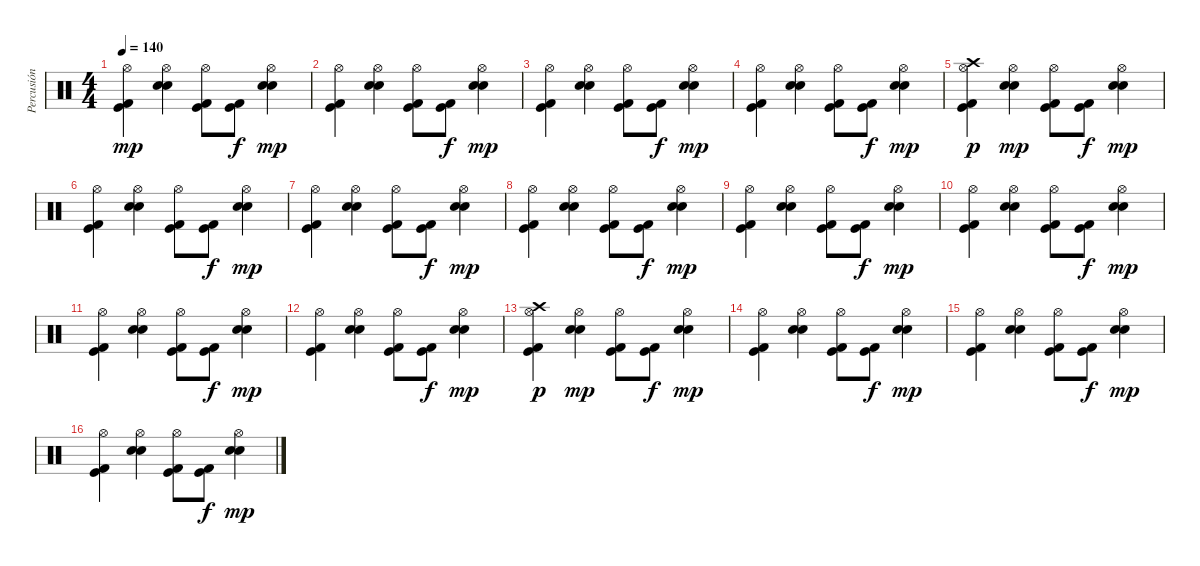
\track ("Percusión" "Percusión") {instrument percussion}
\staff {score}
\articulation defaults
\ts (4 4)
\tempo 140
\clef neutral
\ks c
("Kick (hit)" "Kick (hit) 2" "Hi-Hat (open)").4{dy mp} ("Electric Snare (hit)" "Snare (hit) 2" "Hi-Hat (open)").4 ("Kick (hit)" "Kick (hit) 2" "Hi-Hat (open)").8 ("Kick (hit)" "Kick (hit) 2").8{dy f} ("Snare (hit) 2" "Electric Snare (hit)" "Hi-Hat (open)").4{dy mp} |
("Kick (hit)" "Kick (hit) 2" "Hi-Hat (open)").4 ("Electric Snare (hit)" "Snare (hit) 2" "Hi-Hat (open)").4 ("Kick (hit)" "Kick (hit) 2" "Hi-Hat (open)").8 ("Kick (hit)" "Kick (hit) 2").8{dy f} ("Snare (hit) 2" "Electric Snare (hit)" "Hi-Hat (open)").4{dy mp} |
("Kick (hit)" "Kick (hit) 2" "Hi-Hat (open)").4 ("Electric Snare (hit)" "Snare (hit) 2" "Hi-Hat (open)").4 ("Kick (hit)" "Kick (hit) 2" "Hi-Hat (open)").8 ("Kick (hit)" "Kick (hit) 2").8{dy f} ("Snare (hit) 2" "Electric Snare (hit)" "Hi-Hat (open)").4{dy mp} |
("Kick (hit)" "Kick (hit) 2" "Hi-Hat (open)").4 ("Electric Snare (hit)" "Snare (hit) 2" "Hi-Hat (open)").4 ("Kick (hit)" "Kick (hit) 2" "Hi-Hat (open)").8 ("Kick (hit)" "Kick (hit) 2").8{dy f} ("Snare (hit) 2" "Electric Snare (hit)" "Hi-Hat (open)").4{dy mp} |
("Kick (hit)" "Kick (hit) 2" "Hi-Hat (open)" "Crash high (hit)").4{dy p} ("Electric Snare (hit)" "Snare (hit) 2" "Hi-Hat (open)").4{dy mp} ("Kick (hit)" "Kick (hit) 2" "Hi-Hat (open)").8 ("Kick (hit)" "Kick (hit) 2").8{dy f} ("Snare (hit) 2" "Electric Snare (hit)" "Hi-Hat (open)").4{dy mp} |
("Kick (hit)" "Kick (hit) 2" "Hi-Hat (open)").4 ("Electric Snare (hit)" "Snare (hit) 2" "Hi-Hat (open)").4 ("Kick (hit)" "Kick (hit) 2" "Hi-Hat (open)").8 ("Kick (hit)" "Kick (hit) 2").8{dy f} ("Snare (hit) 2" "Electric Snare (hit)" "Hi-Hat (open)").4{dy mp} |
("Kick (hit)" "Kick (hit) 2" "Hi-Hat (open)").4 ("Electric Snare (hit)" "Snare (hit) 2" "Hi-Hat (open)").4 ("Kick (hit)" "Kick (hit) 2" "Hi-Hat (open)").8 ("Kick (hit)" "Kick (hit) 2").8{dy f} ("Snare (hit) 2" "Electric Snare (hit)" "Hi-Hat (open)").4{dy mp} |
("Kick (hit)" "Kick (hit) 2" "Hi-Hat (open)").4 ("Electric Snare (hit)" "Snare (hit) 2" "Hi-Hat (open)").4 ("Kick (hit)" "Kick (hit) 2" "Hi-Hat (open)").8 ("Kick (hit)" "Kick (hit) 2").8{dy f} ("Snare (hit) 2" "Electric Snare (hit)" "Hi-Hat (open)").4{dy mp} |
("Kick (hit)" "Kick (hit) 2" "Hi-Hat (open)").4 ("Electric Snare (hit)" "Snare (hit) 2" "Hi-Hat (open)").4 ("Kick (hit)" "Kick (hit) 2" "Hi-Hat (open)").8 ("Kick (hit)" "Kick (hit) 2").8{dy f} ("Snare (hit) 2" "Electric Snare (hit)" "Hi-Hat (open)").4{dy mp} |
("Kick (hit)" "Kick (hit) 2" "Hi-Hat (open)").4 ("Electric Snare (hit)" "Snare (hit) 2" "Hi-Hat (open)").4 ("Kick (hit)" "Kick (hit) 2" "Hi-Hat (open)").8 ("Kick (hit)" "Kick (hit) 2").8{dy f} ("Snare (hit) 2" "Electric Snare (hit)" "Hi-Hat (open)").4{dy mp} |
("Kick (hit)" "Kick (hit) 2" "Hi-Hat (open)").4 ("Electric Snare (hit)" "Snare (hit) 2" "Hi-Hat (open)").4 ("Kick (hit)" "Kick (hit) 2" "Hi-Hat (open)").8 ("Kick (hit)" "Kick (hit) 2").8{dy f} ("Snare (hit) 2" "Electric Snare (hit)" "Hi-Hat (open)").4{dy mp} |
("Kick (hit)" "Kick (hit) 2" "Hi-Hat (open)").4 ("Electric Snare (hit)" "Snare (hit) 2" "Hi-Hat (open)").4 ("Kick (hit)" "Kick (hit) 2" "Hi-Hat (open)").8 ("Kick (hit)" "Kick (hit) 2").8{dy f} ("Snare (hit) 2" "Electric Snare (hit)" "Hi-Hat (open)").4{dy mp} |
("Kick (hit)" "Kick (hit) 2" "Hi-Hat (open)" "Crash high (hit)").4{dy p} ("Electric Snare (hit)" "Snare (hit) 2" "Hi-Hat (open)").4{dy mp} ("Kick (hit)" "Kick (hit) 2" "Hi-Hat (open)").8 ("Kick (hit)" "Kick (hit) 2").8{dy f} ("Snare (hit) 2" "Electric Snare (hit)" "Hi-Hat (open)").4{dy mp} |
("Kick (hit)" "Kick (hit) 2" "Hi-Hat (open)").4 ("Electric Snare (hit)" "Snare (hit) 2" "Hi-Hat (open)").4 ("Kick (hit)" "Kick (hit) 2" "Hi-Hat (open)").8 ("Kick (hit)" "Kick (hit) 2").8{dy f} ("Snare (hit) 2" "Electric Snare (hit)" "Hi-Hat (open)").4{dy mp} |
("Kick (hit)" "Kick (hit) 2" "Hi-Hat (open)").4 ("Electric Snare (hit)" "Snare (hit) 2" "Hi-Hat (open)").4 ("Kick (hit)" "Kick (hit) 2" "Hi-Hat (open)").8 ("Kick (hit)" "Kick (hit) 2").8{dy f} ("Snare (hit) 2" "Electric Snare (hit)" "Hi-Hat (open)").4{dy mp} |
("Kick (hit)" "Kick (hit) 2" "Hi-Hat (open)").4 ("Electric Snare (hit)" "Snare (hit) 2" "Hi-Hat (open)").4 ("Kick (hit)" "Kick (hit) 2" "Hi-Hat (open)").8 ("Kick (hit)" "Kick (hit) 2").8{dy f} ("Snare (hit) 2" "Electric Snare (hit)" "Hi-Hat (open)").4{dy mp}
